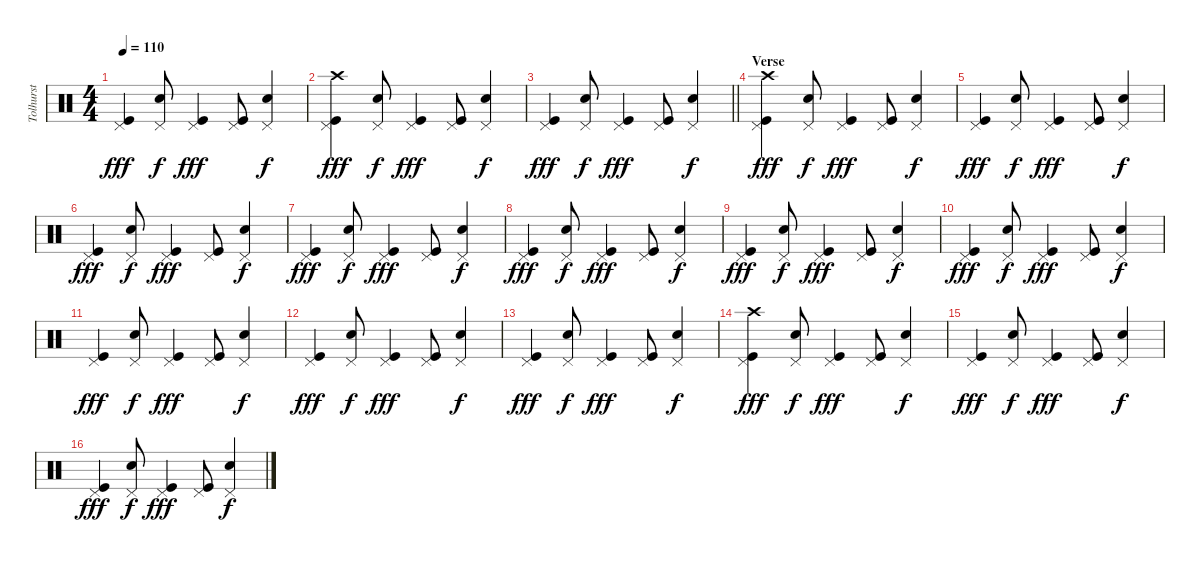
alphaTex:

\track ("Tolhurst" "Tolhurst") {instrument percussion}
\staff {score}
\articulation defaults
\ts (4 4)
\tempo 110
\clef neutral
\ks c
("Pedal Hi-Hat (hit)" "Kick (hit)").4{dy fff} ("Pedal Hi-Hat (hit)" "Electric Snare (hit)").8{dy f} ("Pedal Hi-Hat (hit)" "Kick (hit)").4{dy fff} ("Pedal Hi-Hat (hit)" "Kick (hit)").8 ("Pedal Hi-Hat (hit)" "Electric Snare (hit)").4{dy f} |
("Crash high (hit)" "Pedal Hi-Hat (hit)" "Kick (hit)").4{dy fff} ("Pedal Hi-Hat (hit)" "Electric Snare (hit)").8{dy f} ("Pedal Hi-Hat (hit)" "Kick (hit)").4{dy fff} ("Pedal Hi-Hat (hit)" "Kick (hit)").8 ("Pedal Hi-Hat (hit)" "Electric Snare (hit)").4{dy f} |
\barLineRight lightlight
("Pedal Hi-Hat (hit)" "Kick (hit)").4{dy fff} ("Pedal Hi-Hat (hit)" "Electric Snare (hit)").8{dy f} ("Pedal Hi-Hat (hit)" "Kick (hit)").4{dy fff} ("Pedal Hi-Hat (hit)" "Kick (hit)").8 ("Pedal Hi-Hat (hit)" "Electric Snare (hit)").4{dy f} |
\section ("" "Verse")
("Crash high (hit)" "Pedal Hi-Hat (hit)" "Kick (hit)").4{dy fff} ("Pedal Hi-Hat (hit)" "Electric Snare (hit)").8{dy f} ("Pedal Hi-Hat (hit)" "Kick (hit)").4{dy fff} ("Pedal Hi-Hat (hit)" "Kick (hit)").8 ("Pedal Hi-Hat (hit)" "Electric Snare (hit)").4{dy f} |
("Pedal Hi-Hat (hit)" "Kick (hit)").4{dy fff} ("Pedal Hi-Hat (hit)" "Electric Snare (hit)").8{dy f} ("Pedal Hi-Hat (hit)" "Kick (hit)").4{dy fff} ("Pedal Hi-Hat (hit)" "Kick (hit)").8 ("Pedal Hi-Hat (hit)" "Electric Snare (hit)").4{dy f} |
("Pedal Hi-Hat (hit)" "Kick (hit)").4{dy fff} ("Pedal Hi-Hat (hit)" "Electric Snare (hit)").8{dy f} ("Pedal Hi-Hat (hit)" "Kick (hit)").4{dy fff} ("Pedal Hi-Hat (hit)" "Kick (hit)").8 ("Pedal Hi-Hat (hit)" "Electric Snare (hit)").4{dy f} |
("Pedal Hi-Hat (hit)" "Kick (hit)").4{dy fff} ("Pedal Hi-Hat (hit)" "Electric Snare (hit)").8{dy f} ("Pedal Hi-Hat (hit)" "Kick (hit)").4{dy fff} ("Pedal Hi-Hat (hit)" "Kick (hit)").8 ("Pedal Hi-Hat (hit)" "Electric Snare (hit)").4{dy f} |
("Pedal Hi-Hat (hit)" "Kick (hit)").4{dy fff} ("Pedal Hi-Hat (hit)" "Electric Snare (hit)").8{dy f} ("Pedal Hi-Hat (hit)" "Kick (hit)").4{dy fff} ("Pedal Hi-Hat (hit)" "Kick (hit)").8 ("Pedal Hi-Hat (hit)" "Electric Snare (hit)").4{dy f} |
("Pedal Hi-Hat (hit)" "Kick (hit)").4{dy fff} ("Pedal Hi-Hat (hit)" "Electric Snare (hit)").8{dy f} ("Pedal Hi-Hat (hit)" "Kick (hit)").4{dy fff} ("Pedal Hi-Hat (hit)" "Kick (hit)").8 ("Pedal Hi-Hat (hit)" "Electric Snare (hit)").4{dy f} |
("Pedal Hi-Hat (hit)" "Kick (hit)").4{dy fff} ("Pedal Hi-Hat (hit)" "Electric Snare (hit)").8{dy f} ("Pedal Hi-Hat (hit)" "Kick (hit)").4{dy fff} ("Pedal Hi-Hat (hit)" "Kick (hit)").8 ("Pedal Hi-Hat (hit)" "Electric Snare (hit)").4{dy f} |
("Pedal Hi-Hat (hit)" "Kick (hit)").4{dy fff} ("Pedal Hi-Hat (hit)" "Electric Snare (hit)").8{dy f} ("Pedal Hi-Hat (hit)" "Kick (hit)").4{dy fff} ("Pedal Hi-Hat (hit)" "Kick (hit)").8 ("Pedal Hi-Hat (hit)" "Electric Snare (hit)").4{dy f} |
("Pedal Hi-Hat (hit)" "Kick (hit)").4{dy fff} ("Pedal Hi-Hat (hit)" "Electric Snare (hit)").8{dy f} ("Pedal Hi-Hat (hit)" "Kick (hit)").4{dy fff} ("Pedal Hi-Hat (hit)" "Kick (hit)").8 ("Pedal Hi-Hat (hit)" "Electric Snare (hit)").4{dy f} |
("Pedal Hi-Hat (hit)" "Kick (hit)").4{dy fff} ("Pedal Hi-Hat (hit)" "Electric Snare (hit)").8{dy f} ("Pedal Hi-Hat (hit)" "Kick (hit)").4{dy fff} ("Pedal Hi-Hat (hit)" "Kick (hit)").8 ("Pedal Hi-Hat (hit)" "Electric Snare (hit)").4{dy f} |
("Crash high (hit)" "Pedal Hi-Hat (hit)" "Kick (hit)").4{dy fff} ("Pedal Hi-Hat (hit)" "Electric Snare (hit)").8{dy f} ("Pedal Hi-Hat (hit)" "Kick (hit)").4{dy fff} ("Pedal Hi-Hat (hit)" "Kick (hit)").8 ("Pedal Hi-Hat (hit)" "Electric Snare (hit)").4{dy f} |
("Pedal Hi-Hat (hit)" "Kick (hit)").4{dy fff} ("Pedal Hi-Hat (hit)" "Electric Snare (hit)").8{dy f} ("Pedal Hi-Hat (hit)" "Kick (hit)").4{dy fff} ("Pedal Hi-Hat (hit)" "Kick (hit)").8 ("Pedal Hi-Hat (hit)" "Electric Snare (hit)").4{dy f} |
("Pedal Hi-Hat (hit)" "Kick (hit)").4{dy fff} ("Pedal Hi-Hat (hit)" "Electric Snare (hit)").8{dy f} ("Pedal Hi-Hat (hit)" "Kick (hit)").4{dy fff} ("Pedal Hi-Hat (hit)" "Kick (hit)").8 ("Pedal Hi-Hat (hit)" "Electric Snare (hit)").4{dy f}
